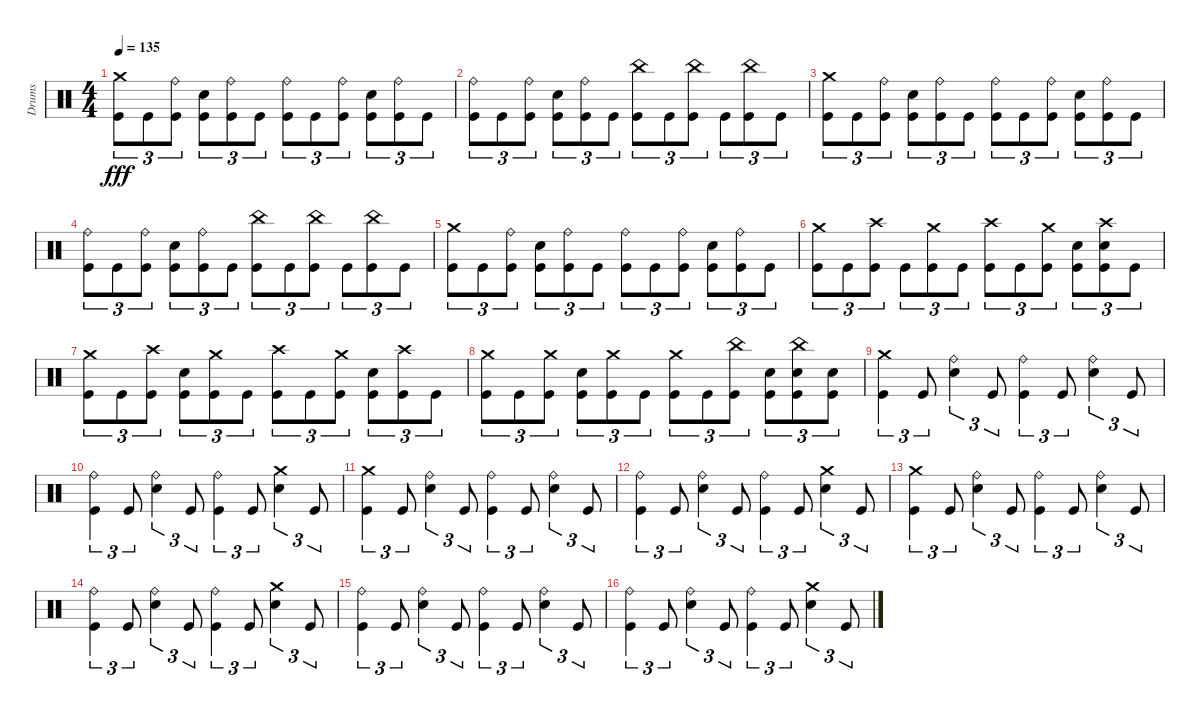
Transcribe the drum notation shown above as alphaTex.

\track ("Drums" "Drums") {instrument percussion}
\staff {score}
\articulation defaults
\ts (4 4)
\tempo 135
\clef neutral
\ks c
("Crash medium (hit)" "Kick (hit)").8{tu (3 2) dy fff} "Kick (hit)".8{tu (3 2)} ("Ride (bell)" "Kick (hit)").8{tu (3 2)} ("Snare (hit) 2" "Kick (hit)").8{tu (3 2)} ("Ride (bell)" "Kick (hit)").8{tu (3 2)} "Kick (hit)".8{tu (3 2)} ("Ride (bell)" "Kick (hit)").8{tu (3 2)} "Kick (hit)".8{tu (3 2)} ("Ride (bell)" "Kick (hit)").8{tu (3 2)} ("Snare (hit) 2" "Kick (hit)").8{tu (3 2)} ("Ride (bell)" "Kick (hit)").8{tu (3 2)} "Kick (hit)".8{tu (3 2)} |
("Ride (bell)" "Kick (hit)").8{tu (3 2)} "Kick (hit)".8{tu (3 2)} ("Ride (bell)" "Kick (hit)").8{tu (3 2)} ("Snare (hit) 2" "Kick (hit)").8{tu (3 2)} ("Ride (bell)" "Kick (hit)").8{tu (3 2)} "Kick (hit)".8{tu (3 2)} ("China (hit)" "Kick (hit)").8{tu (3 2)} "Kick (hit)".8{tu (3 2)} ("China (hit)" "Kick (hit)").8{tu (3 2)} "Kick (hit)".8{tu (3 2)} ("China (hit)" "Kick (hit)").8{tu (3 2)} "Kick (hit)".8{tu (3 2)} |
("Crash medium (hit)" "Kick (hit)").8{tu (3 2)} "Kick (hit)".8{tu (3 2)} ("Ride (bell)" "Kick (hit)").8{tu (3 2)} ("Snare (hit) 2" "Kick (hit)").8{tu (3 2)} ("Ride (bell)" "Kick (hit)").8{tu (3 2)} "Kick (hit)".8{tu (3 2)} ("Ride (bell)" "Kick (hit)").8{tu (3 2)} "Kick (hit)".8{tu (3 2)} ("Ride (bell)" "Kick (hit)").8{tu (3 2)} ("Snare (hit) 2" "Kick (hit)").8{tu (3 2)} ("Ride (bell)" "Kick (hit)").8{tu (3 2)} "Kick (hit)".8{tu (3 2)} |
("Ride (bell)" "Kick (hit)").8{tu (3 2)} "Kick (hit)".8{tu (3 2)} ("Ride (bell)" "Kick (hit)").8{tu (3 2)} ("Snare (hit) 2" "Kick (hit)").8{tu (3 2)} ("Ride (bell)" "Kick (hit)").8{tu (3 2)} "Kick (hit)".8{tu (3 2)} ("China (hit)" "Kick (hit)").8{tu (3 2)} "Kick (hit)".8{tu (3 2)} ("China (hit)" "Kick (hit)").8{tu (3 2)} "Kick (hit)".8{tu (3 2)} ("China (hit)" "Kick (hit)").8{tu (3 2)} "Kick (hit)".8{tu (3 2)} |
("Crash medium (hit)" "Kick (hit)").8{tu (3 2)} "Kick (hit)".8{tu (3 2)} ("Ride (bell)" "Kick (hit)").8{tu (3 2)} ("Snare (hit) 2" "Kick (hit)").8{tu (3 2)} ("Ride (bell)" "Kick (hit)").8{tu (3 2)} "Kick (hit)".8{tu (3 2)} ("Ride (bell)" "Kick (hit)").8{tu (3 2)} "Kick (hit)".8{tu (3 2)} ("Ride (bell)" "Kick (hit)").8{tu (3 2)} ("Snare (hit) 2" "Kick (hit)").8{tu (3 2)} ("Ride (bell)" "Kick (hit)").8{tu (3 2)} "Kick (hit)".8{tu (3 2)} |
("Crash medium (hit)" "Kick (hit)").8{tu (3 2)} "Kick (hit)".8{tu (3 2)} ("Crash high (hit)" "Kick (hit)").8{tu (3 2)} "Kick (hit)".8{tu (3 2)} ("Crash medium (hit)" "Kick (hit)").8{tu (3 2)} "Kick (hit)".8{tu (3 2)} ("Crash high (hit)" "Kick (hit)").8{tu (3 2)} "Kick (hit)".8{tu (3 2)} ("Crash medium (hit)" "Kick (hit)").8{tu (3 2)} ("Snare (hit) 2" "Kick (hit)").8{tu (3 2)} ("Crash high (hit)" "Snare (hit) 2" "Kick (hit)").8{tu (3 2)} "Kick (hit)".8{tu (3 2)} |
("Crash medium (hit)" "Kick (hit)").8{tu (3 2)} "Kick (hit)".8{tu (3 2)} ("Crash high (hit)" "Kick (hit)").8{tu (3 2)} ("Snare (hit) 2" "Kick (hit)").8{tu (3 2)} ("Crash medium (hit)" "Kick (hit)").8{tu (3 2)} "Kick (hit)".8{tu (3 2)} ("Crash high (hit)" "Kick (hit)").8{tu (3 2)} "Kick (hit)".8{tu (3 2)} ("Crash medium (hit)" "Kick (hit)").8{tu (3 2)} ("Snare (hit) 2" "Kick (hit)").8{tu (3 2)} ("Crash high (hit)" "Kick (hit)").8{tu (3 2)} "Kick (hit)".8{tu (3 2)} |
("Crash medium (hit)" "Kick (hit)").8{tu (3 2)} "Kick (hit)".8{tu (3 2)} ("Crash medium (hit)" "Kick (hit)").8{tu (3 2)} ("Snare (hit) 2" "Kick (hit)").8{tu (3 2)} ("Crash medium (hit)" "Kick (hit)").8{tu (3 2)} "Kick (hit)".8{tu (3 2)} ("Crash medium (hit)" "Kick (hit)").8{tu (3 2)} "Kick (hit)".8{tu (3 2)} ("China (hit)" "Kick (hit)").8{tu (3 2)} ("Snare (hit) 2" "Kick (hit)").8{tu (3 2)} ("China (hit)" "Snare (hit) 2" "Kick (hit)").8{tu (3 2)} ("Snare (hit) 2" "Kick (hit)").8{tu (3 2)} |
("Crash medium (hit)" "Kick (hit)").4{tu (3 2)} "Kick (hit)".8{tu (3 2)} ("Ride (bell)" "Snare (hit) 2").4{tu (3 2)} "Kick (hit)".8{tu (3 2)} ("Ride (bell)" "Kick (hit)").4{tu (3 2)} "Kick (hit)".8{tu (3 2)} ("Ride (bell)" "Snare (hit) 2").4{tu (3 2)} "Kick (hit)".8{tu (3 2)} |
("Ride (bell)" "Kick (hit)").4{tu (3 2)} "Kick (hit)".8{tu (3 2)} ("Ride (bell)" "Snare (hit) 2").4{tu (3 2)} "Kick (hit)".8{tu (3 2)} ("Ride (bell)" "Kick (hit)").4{tu (3 2)} "Kick (hit)".8{tu (3 2)} ("Crash medium (hit)" "Snare (hit) 2").4{tu (3 2)} "Kick (hit)".8{tu (3 2)} |
("Crash medium (hit)" "Kick (hit)").4{tu (3 2)} "Kick (hit)".8{tu (3 2)} ("Ride (bell)" "Snare (hit) 2").4{tu (3 2)} "Kick (hit)".8{tu (3 2)} ("Ride (bell)" "Kick (hit)").4{tu (3 2)} "Kick (hit)".8{tu (3 2)} ("Ride (bell)" "Snare (hit) 2").4{tu (3 2)} "Kick (hit)".8{tu (3 2)} |
("Ride (bell)" "Kick (hit)").4{tu (3 2)} "Kick (hit)".8{tu (3 2)} ("Ride (bell)" "Snare (hit) 2").4{tu (3 2)} "Kick (hit)".8{tu (3 2)} ("Ride (bell)" "Kick (hit)").4{tu (3 2)} "Kick (hit)".8{tu (3 2)} ("Crash medium (hit)" "Snare (hit) 2").4{tu (3 2)} "Kick (hit)".8{tu (3 2)} |
("Crash medium (hit)" "Kick (hit)").4{tu (3 2)} "Kick (hit)".8{tu (3 2)} ("Ride (bell)" "Snare (hit) 2").4{tu (3 2)} "Kick (hit)".8{tu (3 2)} ("Ride (bell)" "Kick (hit)").4{tu (3 2)} "Kick (hit)".8{tu (3 2)} ("Ride (bell)" "Snare (hit) 2").4{tu (3 2)} "Kick (hit)".8{tu (3 2)} |
("Ride (bell)" "Kick (hit)").4{tu (3 2)} "Kick (hit)".8{tu (3 2)} ("Ride (bell)" "Snare (hit) 2").4{tu (3 2)} "Kick (hit)".8{tu (3 2)} ("Ride (bell)" "Kick (hit)").4{tu (3 2)} "Kick (hit)".8{tu (3 2)} ("Crash medium (hit)" "Snare (hit) 2").4{tu (3 2)} "Kick (hit)".8{tu (3 2)} |
("Ride (bell)" "Kick (hit)").4{tu (3 2)} "Kick (hit)".8{tu (3 2)} ("Ride (bell)" "Snare (hit) 2").4{tu (3 2)} "Kick (hit)".8{tu (3 2)} ("Ride (bell)" "Kick (hit)").4{tu (3 2)} "Kick (hit)".8{tu (3 2)} ("Ride (bell)" "Snare (hit) 2").4{tu (3 2)} "Kick (hit)".8{tu (3 2)} |
("Ride (bell)" "Kick (hit)").4{tu (3 2)} "Kick (hit)".8{tu (3 2)} ("Ride (bell)" "Snare (hit) 2").4{tu (3 2)} "Kick (hit)".8{tu (3 2)} ("Ride (bell)" "Kick (hit)").4{tu (3 2)} "Kick (hit)".8{tu (3 2)} ("Crash medium (hit)" "Snare (hit) 2").4{tu (3 2)} "Kick (hit)".8{tu (3 2)}
